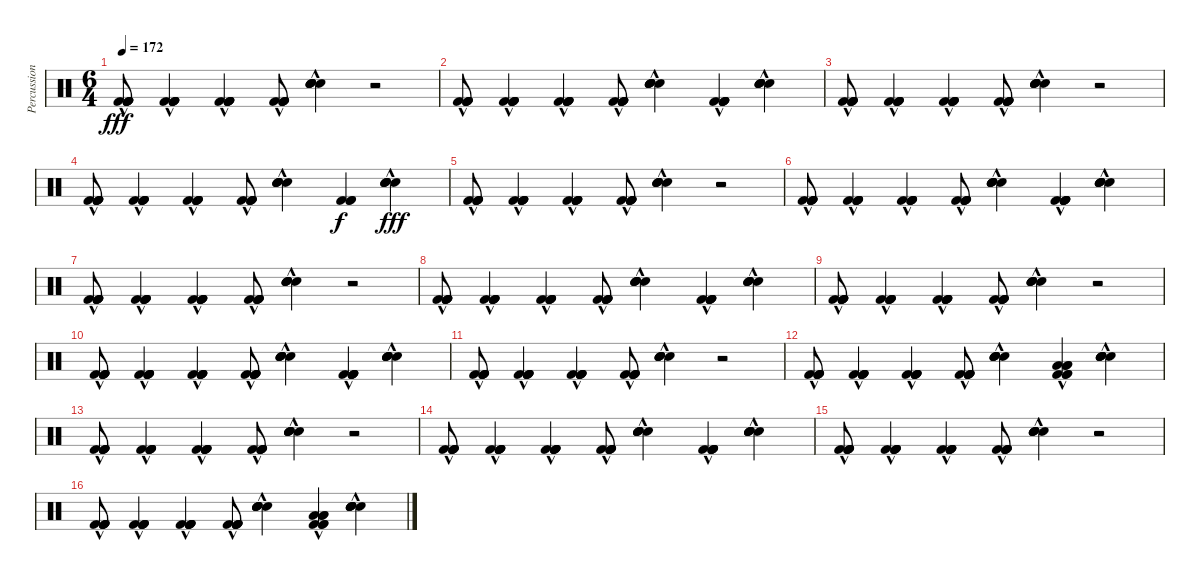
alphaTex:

\track ("Percussion" "Percussion") {instrument percussion}
\staff {score}
\articulation defaults
\ts (6 4)
\tempo 172
\clef neutral
\ks c
("Kick (hit) 2"{hac} "Kick (hit) 2" "Kick (hit) 2" "Kick (hit) 2" "Kick (hit) 2").8{dy fff} ("Kick (hit) 2"{hac} "Kick (hit) 2" "Kick (hit) 2" "Kick (hit) 2" "Kick (hit) 2").4 ("Kick (hit) 2"{hac} "Kick (hit) 2" "Kick (hit) 2" "Kick (hit) 2" "Kick (hit) 2").4 ("Kick (hit) 2"{hac} "Kick (hit) 2" "Kick (hit) 2" "Kick (hit) 2" "Kick (hit) 2").8 ("Electric Snare (hit)"{hac} "Electric Snare (hit)" "Electric Snare (hit)" "Electric Snare (hit)" "Electric Snare (hit)").4 r.2 |
("Kick (hit) 2"{hac} "Kick (hit) 2" "Kick (hit) 2" "Kick (hit) 2" "Kick (hit) 2").8 ("Kick (hit) 2"{hac} "Kick (hit) 2" "Kick (hit) 2" "Kick (hit) 2" "Kick (hit) 2").4 ("Kick (hit) 2"{hac} "Kick (hit) 2" "Kick (hit) 2" "Kick (hit) 2" "Kick (hit) 2").4 ("Kick (hit) 2"{hac} "Kick (hit) 2" "Kick (hit) 2" "Kick (hit) 2" "Kick (hit) 2").8 ("Electric Snare (hit)"{hac} "Electric Snare (hit)" "Electric Snare (hit)" "Electric Snare (hit)" "Electric Snare (hit)").4 ("Kick (hit) 2"{hac} "Kick (hit) 2" "Kick (hit) 2" "Kick (hit) 2" "Kick (hit) 2").4 ("Electric Snare (hit)"{hac} "Electric Snare (hit)" "Electric Snare (hit)" "Electric Snare (hit)" "Electric Snare (hit)").4 |
("Kick (hit) 2"{hac} "Kick (hit) 2" "Kick (hit) 2" "Kick (hit) 2" "Kick (hit) 2").8 ("Kick (hit) 2"{hac} "Kick (hit) 2" "Kick (hit) 2" "Kick (hit) 2" "Kick (hit) 2").4 ("Kick (hit) 2"{hac} "Kick (hit) 2" "Kick (hit) 2" "Kick (hit) 2" "Kick (hit) 2").4 ("Kick (hit) 2"{hac} "Kick (hit) 2" "Kick (hit) 2" "Kick (hit) 2" "Kick (hit) 2").8 ("Electric Snare (hit)"{hac} "Electric Snare (hit)" "Electric Snare (hit)" "Electric Snare (hit)" "Electric Snare (hit)").4 r.2 |
("Kick (hit) 2"{hac} "Kick (hit) 2" "Kick (hit) 2" "Kick (hit) 2" "Kick (hit) 2").8 ("Kick (hit) 2"{hac} "Kick (hit) 2" "Kick (hit) 2" "Kick (hit) 2" "Kick (hit) 2").4 ("Kick (hit) 2"{hac} "Kick (hit) 2" "Kick (hit) 2" "Kick (hit) 2" "Kick (hit) 2").4 ("Kick (hit) 2"{hac} "Kick (hit) 2" "Kick (hit) 2" "Kick (hit) 2" "Kick (hit) 2").8 ("Electric Snare (hit)"{hac} "Electric Snare (hit)" "Electric Snare (hit)" "Electric Snare (hit)" "Electric Snare (hit)").4 ("Kick (hit) 2" "Kick (hit) 2" "Kick (hit) 2").4{dy f} ("Electric Snare (hit)"{hac} "Electric Snare (hit)" "Electric Snare (hit)" "Electric Snare (hit)" "Electric Snare (hit)").4{dy fff} |
("Kick (hit) 2"{hac} "Kick (hit) 2" "Kick (hit) 2" "Kick (hit) 2" "Kick (hit) 2").8 ("Kick (hit) 2"{hac} "Kick (hit) 2" "Kick (hit) 2" "Kick (hit) 2" "Kick (hit) 2").4 ("Kick (hit) 2"{hac} "Kick (hit) 2" "Kick (hit) 2" "Kick (hit) 2" "Kick (hit) 2").4 ("Kick (hit) 2"{hac} "Kick (hit) 2" "Kick (hit) 2" "Kick (hit) 2" "Kick (hit) 2").8 ("Electric Snare (hit)"{hac} "Electric Snare (hit)" "Electric Snare (hit)" "Electric Snare (hit)" "Electric Snare (hit)").4 r.2 |
("Kick (hit) 2"{hac} "Kick (hit) 2" "Kick (hit) 2" "Kick (hit) 2" "Kick (hit) 2").8 ("Kick (hit) 2"{hac} "Kick (hit) 2" "Kick (hit) 2" "Kick (hit) 2" "Kick (hit) 2").4 ("Kick (hit) 2"{hac} "Kick (hit) 2" "Kick (hit) 2" "Kick (hit) 2" "Kick (hit) 2").4 ("Kick (hit) 2"{hac} "Kick (hit) 2" "Kick (hit) 2" "Kick (hit) 2" "Kick (hit) 2").8 ("Electric Snare (hit)"{hac} "Electric Snare (hit)" "Electric Snare (hit)" "Electric Snare (hit)" "Electric Snare (hit)").4 ("Kick (hit) 2"{hac} "Kick (hit) 2" "Kick (hit) 2" "Kick (hit) 2" "Kick (hit) 2").4 ("Electric Snare (hit)"{hac} "Electric Snare (hit)" "Electric Snare (hit)" "Electric Snare (hit)" "Electric Snare (hit)").4 |
("Kick (hit) 2"{hac} "Kick (hit) 2" "Kick (hit) 2" "Kick (hit) 2" "Kick (hit) 2").8 ("Kick (hit) 2"{hac} "Kick (hit) 2" "Kick (hit) 2" "Kick (hit) 2" "Kick (hit) 2").4 ("Kick (hit) 2"{hac} "Kick (hit) 2" "Kick (hit) 2" "Kick (hit) 2" "Kick (hit) 2").4 ("Kick (hit) 2"{hac} "Kick (hit) 2" "Kick (hit) 2" "Kick (hit) 2" "Kick (hit) 2").8 ("Electric Snare (hit)"{hac} "Electric Snare (hit)" "Electric Snare (hit)" "Electric Snare (hit)" "Electric Snare (hit)").4 r.2 |
("Kick (hit) 2"{hac} "Kick (hit) 2" "Kick (hit) 2" "Kick (hit) 2" "Kick (hit) 2").8 ("Kick (hit) 2"{hac} "Kick (hit) 2" "Kick (hit) 2" "Kick (hit) 2" "Kick (hit) 2").4 ("Kick (hit) 2"{hac} "Kick (hit) 2" "Kick (hit) 2" "Kick (hit) 2" "Kick (hit) 2").4 ("Kick (hit) 2"{hac} "Kick (hit) 2" "Kick (hit) 2" "Kick (hit) 2" "Kick (hit) 2").8 ("Electric Snare (hit)"{hac} "Electric Snare (hit)" "Electric Snare (hit)" "Electric Snare (hit)" "Electric Snare (hit)").4 ("Kick (hit) 2"{hac} "Kick (hit) 2" "Kick (hit) 2" "Kick (hit) 2" "Kick (hit) 2").4 ("Electric Snare (hit)"{hac} "Electric Snare (hit)" "Electric Snare (hit)" "Electric Snare (hit)" "Electric Snare (hit)").4 |
("Kick (hit) 2"{hac} "Kick (hit) 2" "Kick (hit) 2" "Kick (hit) 2" "Kick (hit) 2").8 ("Kick (hit) 2"{hac} "Kick (hit) 2" "Kick (hit) 2" "Kick (hit) 2" "Kick (hit) 2").4 ("Kick (hit) 2"{hac} "Kick (hit) 2" "Kick (hit) 2" "Kick (hit) 2" "Kick (hit) 2").4 ("Kick (hit) 2"{hac} "Kick (hit) 2" "Kick (hit) 2" "Kick (hit) 2" "Kick (hit) 2").8 ("Electric Snare (hit)"{hac} "Electric Snare (hit)" "Electric Snare (hit)" "Electric Snare (hit)" "Electric Snare (hit)").4 r.2 |
("Kick (hit) 2"{hac} "Kick (hit) 2" "Kick (hit) 2" "Kick (hit) 2" "Kick (hit) 2").8 ("Kick (hit) 2"{hac} "Kick (hit) 2" "Kick (hit) 2" "Kick (hit) 2" "Kick (hit) 2").4 ("Kick (hit) 2"{hac} "Kick (hit) 2" "Kick (hit) 2" "Kick (hit) 2" "Kick (hit) 2").4 ("Kick (hit) 2"{hac} "Kick (hit) 2" "Kick (hit) 2" "Kick (hit) 2" "Kick (hit) 2").8 ("Electric Snare (hit)"{hac} "Electric Snare (hit)" "Electric Snare (hit)" "Electric Snare (hit)" "Electric Snare (hit)").4 ("Kick (hit) 2"{hac} "Kick (hit) 2" "Kick (hit) 2" "Kick (hit) 2" "Kick (hit) 2").4 ("Electric Snare (hit)"{hac} "Electric Snare (hit)" "Electric Snare (hit)" "Electric Snare (hit)" "Electric Snare (hit)").4 |
("Kick (hit) 2"{hac} "Kick (hit) 2" "Kick (hit) 2" "Kick (hit) 2" "Kick (hit) 2").8 ("Kick (hit) 2"{hac} "Kick (hit) 2" "Kick (hit) 2" "Kick (hit) 2" "Kick (hit) 2").4 ("Kick (hit) 2"{hac} "Kick (hit) 2" "Kick (hit) 2" "Kick (hit) 2" "Kick (hit) 2").4 ("Kick (hit) 2"{hac} "Kick (hit) 2" "Kick (hit) 2" "Kick (hit) 2" "Kick (hit) 2").8 ("Electric Snare (hit)"{hac} "Electric Snare (hit)" "Electric Snare (hit)" "Electric Snare (hit)" "Electric Snare (hit)").4 r.2 |
("Kick (hit) 2"{hac} "Kick (hit) 2" "Kick (hit) 2" "Kick (hit) 2" "Kick (hit) 2").8 ("Kick (hit) 2"{hac} "Kick (hit) 2" "Kick (hit) 2" "Kick (hit) 2" "Kick (hit) 2").4 ("Kick (hit) 2"{hac} "Kick (hit) 2" "Kick (hit) 2" "Kick (hit) 2" "Kick (hit) 2").4 ("Kick (hit) 2"{hac} "Kick (hit) 2" "Kick (hit) 2" "Kick (hit) 2" "Kick (hit) 2").8 ("Electric Snare (hit)"{hac} "Electric Snare (hit)" "Electric Snare (hit)" "Electric Snare (hit)" "Electric Snare (hit)").4 ("Low Tom (hit)" "Low Tom (hit)"{hac} "Low Tom (hit)" "Kick (hit) 2" "Kick (hit) 2" "Kick (hit) 2").4 ("Electric Snare (hit)"{hac} "Electric Snare (hit)" "Electric Snare (hit)" "Electric Snare (hit)" "Electric Snare (hit)").4 |
("Kick (hit) 2"{hac} "Kick (hit) 2" "Kick (hit) 2" "Kick (hit) 2" "Kick (hit) 2").8 ("Kick (hit) 2"{hac} "Kick (hit) 2" "Kick (hit) 2" "Kick (hit) 2" "Kick (hit) 2").4 ("Kick (hit) 2"{hac} "Kick (hit) 2" "Kick (hit) 2" "Kick (hit) 2" "Kick (hit) 2").4 ("Kick (hit) 2"{hac} "Kick (hit) 2" "Kick (hit) 2" "Kick (hit) 2" "Kick (hit) 2").8 ("Electric Snare (hit)"{hac} "Electric Snare (hit)" "Electric Snare (hit)" "Electric Snare (hit)" "Electric Snare (hit)").4 r.2 |
("Kick (hit) 2"{hac} "Kick (hit) 2" "Kick (hit) 2" "Kick (hit) 2" "Kick (hit) 2").8 ("Kick (hit) 2"{hac} "Kick (hit) 2" "Kick (hit) 2" "Kick (hit) 2" "Kick (hit) 2").4 ("Kick (hit) 2"{hac} "Kick (hit) 2" "Kick (hit) 2" "Kick (hit) 2" "Kick (hit) 2").4 ("Kick (hit) 2"{hac} "Kick (hit) 2" "Kick (hit) 2" "Kick (hit) 2" "Kick (hit) 2").8 ("Electric Snare (hit)"{hac} "Electric Snare (hit)" "Electric Snare (hit)" "Electric Snare (hit)" "Electric Snare (hit)").4 ("Kick (hit) 2"{hac} "Kick (hit) 2" "Kick (hit) 2" "Kick (hit) 2" "Kick (hit) 2").4 ("Electric Snare (hit)"{hac} "Electric Snare (hit)" "Electric Snare (hit)" "Electric Snare (hit)" "Electric Snare (hit)").4 |
("Kick (hit) 2"{hac} "Kick (hit) 2" "Kick (hit) 2" "Kick (hit) 2" "Kick (hit) 2").8 ("Kick (hit) 2"{hac} "Kick (hit) 2" "Kick (hit) 2" "Kick (hit) 2" "Kick (hit) 2").4 ("Kick (hit) 2"{hac} "Kick (hit) 2" "Kick (hit) 2" "Kick (hit) 2" "Kick (hit) 2").4 ("Kick (hit) 2"{hac} "Kick (hit) 2" "Kick (hit) 2" "Kick (hit) 2" "Kick (hit) 2").8 ("Electric Snare (hit)"{hac} "Electric Snare (hit)" "Electric Snare (hit)" "Electric Snare (hit)" "Electric Snare (hit)").4 r.2 |
("Kick (hit) 2"{hac} "Kick (hit) 2" "Kick (hit) 2" "Kick (hit) 2" "Kick (hit) 2").8 ("Kick (hit) 2"{hac} "Kick (hit) 2" "Kick (hit) 2" "Kick (hit) 2" "Kick (hit) 2").4 ("Kick (hit) 2"{hac} "Kick (hit) 2" "Kick (hit) 2" "Kick (hit) 2" "Kick (hit) 2").4 ("Kick (hit) 2"{hac} "Kick (hit) 2" "Kick (hit) 2" "Kick (hit) 2" "Kick (hit) 2").8 ("Electric Snare (hit)"{hac} "Electric Snare (hit)" "Electric Snare (hit)" "Electric Snare (hit)" "Electric Snare (hit)").4 ("Low Tom (hit)" "Low Tom (hit)"{hac} "Low Tom (hit)" "Kick (hit) 2" "Kick (hit) 2" "Kick (hit) 2").4 ("Electric Snare (hit)"{hac} "Electric Snare (hit)" "Electric Snare (hit)" "Electric Snare (hit)" "Electric Snare (hit)").4
